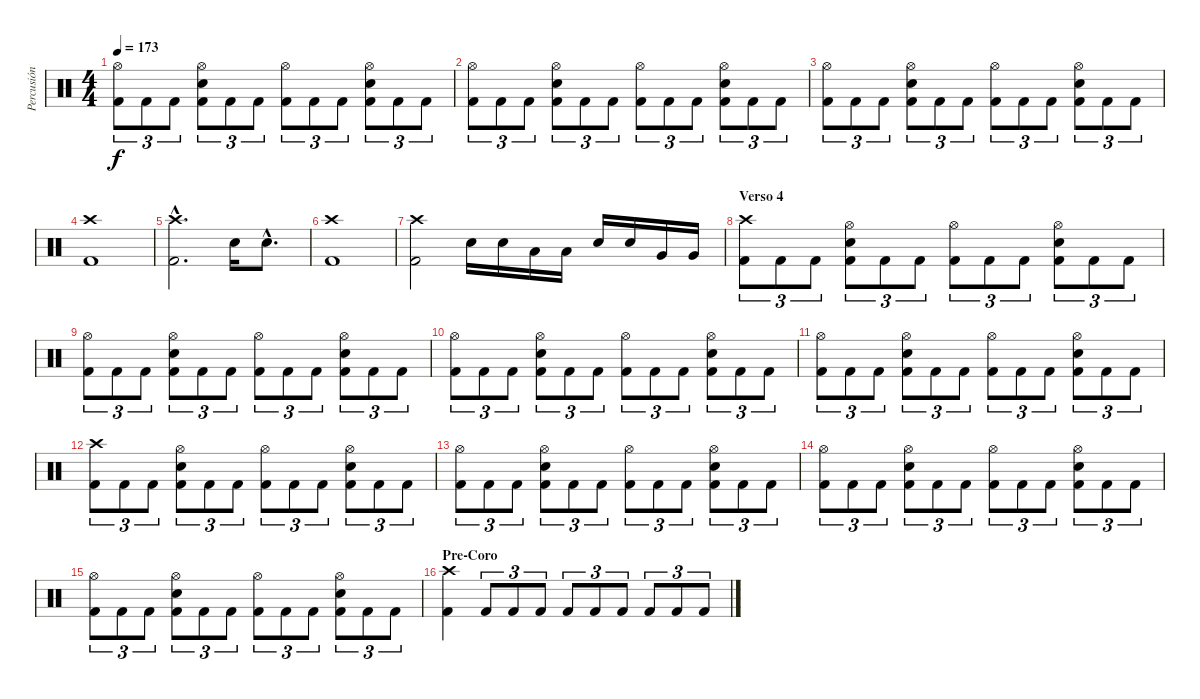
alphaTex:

\track ("Percusión" "Percusión") {instrument percussion}
\staff {score}
\articulation defaults
\ts (4 4)
\tempo 173
\clef neutral
\ks c
("Hi-Hat (open)" "Kick (hit) 2").8{tu (3 2) dy f} "Kick (hit) 2".8{tu (3 2)} "Kick (hit) 2".8{tu (3 2)} ("Hi-Hat (open)" "Snare (hit) 2" "Kick (hit) 2").8{tu (3 2)} "Kick (hit) 2".8{tu (3 2)} "Kick (hit) 2".8{tu (3 2)} ("Hi-Hat (open)" "Kick (hit) 2").8{tu (3 2)} "Kick (hit) 2".8{tu (3 2)} "Kick (hit) 2".8{tu (3 2)} ("Hi-Hat (open)" "Snare (hit) 2" "Kick (hit) 2").8{tu (3 2)} "Kick (hit) 2".8{tu (3 2)} "Kick (hit) 2".8{tu (3 2)} |
("Hi-Hat (open)" "Kick (hit) 2").8{tu (3 2)} "Kick (hit) 2".8{tu (3 2)} "Kick (hit) 2".8{tu (3 2)} ("Hi-Hat (open)" "Snare (hit) 2" "Kick (hit) 2").8{tu (3 2)} "Kick (hit) 2".8{tu (3 2)} "Kick (hit) 2".8{tu (3 2)} ("Hi-Hat (open)" "Kick (hit) 2").8{tu (3 2)} "Kick (hit) 2".8{tu (3 2)} "Kick (hit) 2".8{tu (3 2)} ("Hi-Hat (open)" "Snare (hit) 2" "Kick (hit) 2").8{tu (3 2)} "Kick (hit) 2".8{tu (3 2)} "Kick (hit) 2".8{tu (3 2)} |
("Hi-Hat (open)" "Kick (hit) 2").8{tu (3 2)} "Kick (hit) 2".8{tu (3 2)} "Kick (hit) 2".8{tu (3 2)} ("Hi-Hat (open)" "Snare (hit) 2" "Kick (hit) 2").8{tu (3 2)} "Kick (hit) 2".8{tu (3 2)} "Kick (hit) 2".8{tu (3 2)} ("Hi-Hat (open)" "Kick (hit) 2").8{tu (3 2)} "Kick (hit) 2".8{tu (3 2)} "Kick (hit) 2".8{tu (3 2)} ("Hi-Hat (open)" "Snare (hit) 2" "Kick (hit) 2").8{tu (3 2)} "Kick (hit) 2".8{tu (3 2)} "Kick (hit) 2".8{tu (3 2)} |
("Crash high (hit)" "Kick (hit) 2").1 |
("Crash high (hit)"{hac} "Kick (hit) 2"{hac}).2{d} "Snare (hit) 2".16 "Snare (hit) 2"{hac}.8{d} |
("Crash high (hit)" "Kick (hit) 2").1 |
("Crash high (hit)" "Kick (hit) 2").2 "Snare (hit) 2".16 "Snare (hit) 2".16 "Low Tom (hit)".16 "Low Tom (hit)".16 "Snare (hit) 2".16 "Snare (hit) 2".16 "Very Low Tom (hit)".16 "Very Low Tom (hit)".16 |
\section ("" "Verso 4")
("Crash high (hit)" "Kick (hit) 2").8{tu (3 2)} "Kick (hit) 2".8{tu (3 2)} "Kick (hit) 2".8{tu (3 2)} ("Hi-Hat (open)" "Snare (hit) 2" "Kick (hit) 2").8{tu (3 2)} "Kick (hit) 2".8{tu (3 2)} "Kick (hit) 2".8{tu (3 2)} ("Hi-Hat (open)" "Kick (hit) 2").8{tu (3 2)} "Kick (hit) 2".8{tu (3 2)} "Kick (hit) 2".8{tu (3 2)} ("Hi-Hat (open)" "Snare (hit) 2" "Kick (hit) 2").8{tu (3 2)} "Kick (hit) 2".8{tu (3 2)} "Kick (hit) 2".8{tu (3 2)} |
("Hi-Hat (open)" "Kick (hit) 2").8{tu (3 2)} "Kick (hit) 2".8{tu (3 2)} "Kick (hit) 2".8{tu (3 2)} ("Hi-Hat (open)" "Snare (hit) 2" "Kick (hit) 2").8{tu (3 2)} "Kick (hit) 2".8{tu (3 2)} "Kick (hit) 2".8{tu (3 2)} ("Hi-Hat (open)" "Kick (hit) 2").8{tu (3 2)} "Kick (hit) 2".8{tu (3 2)} "Kick (hit) 2".8{tu (3 2)} ("Hi-Hat (open)" "Snare (hit) 2" "Kick (hit) 2").8{tu (3 2)} "Kick (hit) 2".8{tu (3 2)} "Kick (hit) 2".8{tu (3 2)} |
("Hi-Hat (open)" "Kick (hit) 2").8{tu (3 2)} "Kick (hit) 2".8{tu (3 2)} "Kick (hit) 2".8{tu (3 2)} ("Hi-Hat (open)" "Snare (hit) 2" "Kick (hit) 2").8{tu (3 2)} "Kick (hit) 2".8{tu (3 2)} "Kick (hit) 2".8{tu (3 2)} ("Hi-Hat (open)" "Kick (hit) 2").8{tu (3 2)} "Kick (hit) 2".8{tu (3 2)} "Kick (hit) 2".8{tu (3 2)} ("Hi-Hat (open)" "Snare (hit) 2" "Kick (hit) 2").8{tu (3 2)} "Kick (hit) 2".8{tu (3 2)} "Kick (hit) 2".8{tu (3 2)} |
("Hi-Hat (open)" "Kick (hit) 2").8{tu (3 2)} "Kick (hit) 2".8{tu (3 2)} "Kick (hit) 2".8{tu (3 2)} ("Hi-Hat (open)" "Snare (hit) 2" "Kick (hit) 2").8{tu (3 2)} "Kick (hit) 2".8{tu (3 2)} "Kick (hit) 2".8{tu (3 2)} ("Hi-Hat (open)" "Kick (hit) 2").8{tu (3 2)} "Kick (hit) 2".8{tu (3 2)} "Kick (hit) 2".8{tu (3 2)} ("Hi-Hat (open)" "Snare (hit) 2" "Kick (hit) 2").8{tu (3 2)} "Kick (hit) 2".8{tu (3 2)} "Kick (hit) 2".8{tu (3 2)} |
("Crash high (hit)" "Kick (hit) 2").8{tu (3 2)} "Kick (hit) 2".8{tu (3 2)} "Kick (hit) 2".8{tu (3 2)} ("Hi-Hat (open)" "Snare (hit) 2" "Kick (hit) 2").8{tu (3 2)} "Kick (hit) 2".8{tu (3 2)} "Kick (hit) 2".8{tu (3 2)} ("Hi-Hat (open)" "Kick (hit) 2").8{tu (3 2)} "Kick (hit) 2".8{tu (3 2)} "Kick (hit) 2".8{tu (3 2)} ("Hi-Hat (open)" "Snare (hit) 2" "Kick (hit) 2").8{tu (3 2)} "Kick (hit) 2".8{tu (3 2)} "Kick (hit) 2".8{tu (3 2)} |
("Hi-Hat (open)" "Kick (hit) 2").8{tu (3 2)} "Kick (hit) 2".8{tu (3 2)} "Kick (hit) 2".8{tu (3 2)} ("Hi-Hat (open)" "Snare (hit) 2" "Kick (hit) 2").8{tu (3 2)} "Kick (hit) 2".8{tu (3 2)} "Kick (hit) 2".8{tu (3 2)} ("Hi-Hat (open)" "Kick (hit) 2").8{tu (3 2)} "Kick (hit) 2".8{tu (3 2)} "Kick (hit) 2".8{tu (3 2)} ("Hi-Hat (open)" "Snare (hit) 2" "Kick (hit) 2").8{tu (3 2)} "Kick (hit) 2".8{tu (3 2)} "Kick (hit) 2".8{tu (3 2)} |
("Hi-Hat (open)" "Kick (hit) 2").8{tu (3 2)} "Kick (hit) 2".8{tu (3 2)} "Kick (hit) 2".8{tu (3 2)} ("Hi-Hat (open)" "Snare (hit) 2" "Kick (hit) 2").8{tu (3 2)} "Kick (hit) 2".8{tu (3 2)} "Kick (hit) 2".8{tu (3 2)} ("Hi-Hat (open)" "Kick (hit) 2").8{tu (3 2)} "Kick (hit) 2".8{tu (3 2)} "Kick (hit) 2".8{tu (3 2)} ("Hi-Hat (open)" "Snare (hit) 2" "Kick (hit) 2").8{tu (3 2)} "Kick (hit) 2".8{tu (3 2)} "Kick (hit) 2".8{tu (3 2)} |
("Hi-Hat (open)" "Kick (hit) 2").8{tu (3 2)} "Kick (hit) 2".8{tu (3 2)} "Kick (hit) 2".8{tu (3 2)} ("Hi-Hat (open)" "Snare (hit) 2" "Kick (hit) 2").8{tu (3 2)} "Kick (hit) 2".8{tu (3 2)} "Kick (hit) 2".8{tu (3 2)} ("Hi-Hat (open)" "Kick (hit) 2").8{tu (3 2)} "Kick (hit) 2".8{tu (3 2)} "Kick (hit) 2".8{tu (3 2)} ("Hi-Hat (open)" "Snare (hit) 2" "Kick (hit) 2").8{tu (3 2)} "Kick (hit) 2".8{tu (3 2)} "Kick (hit) 2".8{tu (3 2)} |
\section ("" "Pre-Coro")
("Crash high (hit)" "Kick (hit) 2").4 "Kick (hit) 2".8{tu (3 2)} "Kick (hit) 2".8{tu (3 2)} "Kick (hit) 2".8{tu (3 2)} "Kick (hit) 2".8{tu (3 2)} "Kick (hit) 2".8{tu (3 2)} "Kick (hit) 2".8{tu (3 2)} "Kick (hit) 2".8{tu (3 2)} "Kick (hit) 2".8{tu (3 2)} "Kick (hit) 2".8{tu (3 2)}
